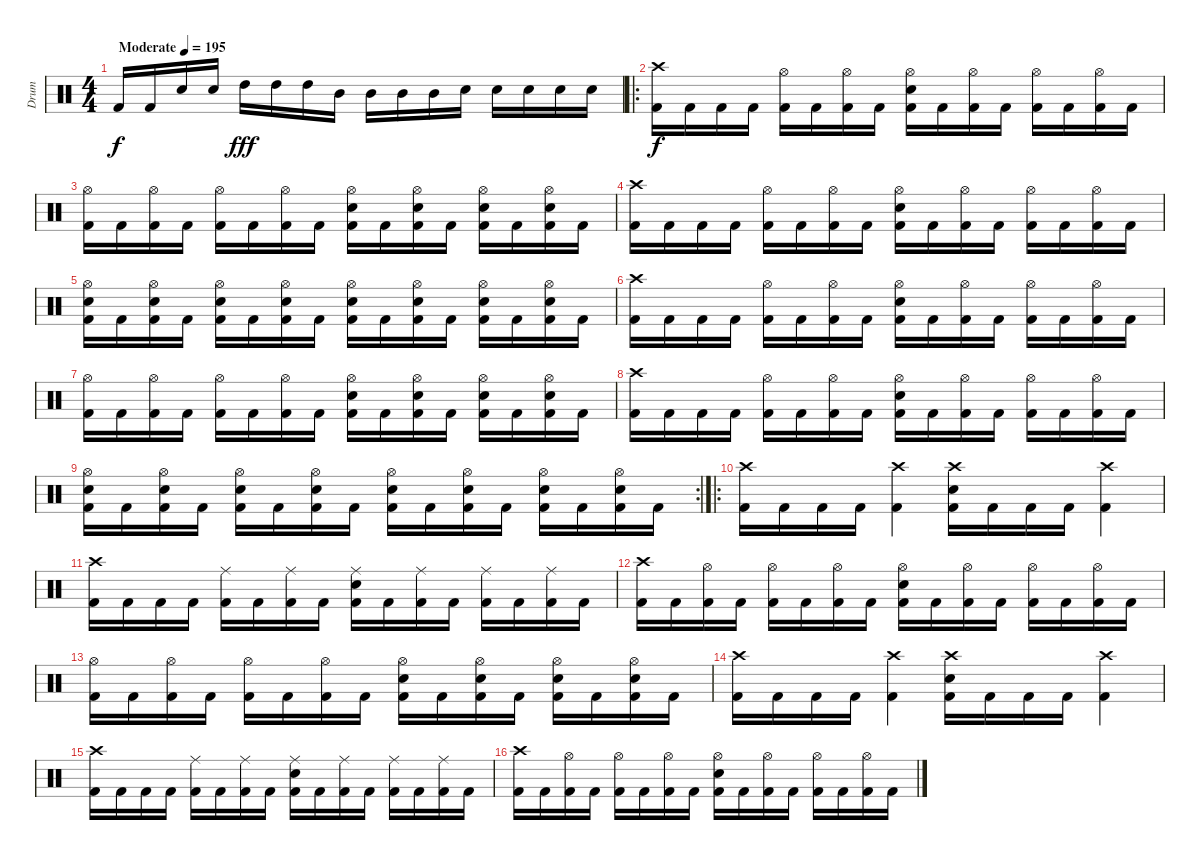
\track ("Drum" "Drum") {instrument percussion}
\staff {score}
\articulation defaults
\ts (4 4)
\tempo (195 "Moderate")
\clef neutral
\ks c "Kick (hit) 2".16{dy f} "Kick (hit) 2".16 "Electric Snare (hit)".16 "Electric Snare (hit)".16 "High Tom (hit)".16{dy fff} "High Tom (hit)".16 "High Tom (hit)".16 "Mid Tom (hit)".16 "Mid Tom (hit)".16 "Mid Tom (hit)".16 "Mid Tom (hit)".16 "Electric Snare (hit)".16 "Electric Snare (hit)".16 "Electric Snare (hit)".16 "Electric Snare (hit)".16 "Electric Snare (hit)".16
|
\ro
("Crash high (hit)" "Kick (hit) 2").16{dy f} "Kick (hit) 2".16 "Kick (hit) 2".16 "Kick (hit) 2".16 ("Hi-Hat (open)" "Kick (hit) 2").16 "Kick (hit) 2".16 ("Hi-Hat (open)" "Kick (hit) 2").16 "Kick (hit) 2".16 ("Hi-Hat (open)" "Electric Snare (hit)" "Kick (hit) 2").16 "Kick (hit) 2".16 ("Hi-Hat (open)" "Kick (hit) 2").16 "Kick (hit) 2".16 ("Hi-Hat (open)" "Kick (hit) 2").16 "Kick (hit) 2".16 ("Hi-Hat (open)" "Kick (hit) 2").16 "Kick (hit) 2".16 |
("Hi-Hat (open)" "Kick (hit) 2").16 "Kick (hit) 2".16 ("Hi-Hat (open)" "Kick (hit) 2").16 "Kick (hit) 2".16 ("Hi-Hat (open)" "Kick (hit) 2").16 "Kick (hit) 2".16 ("Hi-Hat (open)" "Kick (hit) 2").16 "Kick (hit) 2".16 ("Hi-Hat (open)" "Electric Snare (hit)" "Kick (hit) 2").16 "Kick (hit) 2".16 ("Hi-Hat (open)" "Electric Snare (hit)" "Kick (hit) 2").16 "Kick (hit) 2".16 ("Hi-Hat (open)" "Electric Snare (hit)" "Kick (hit) 2").16 "Kick (hit) 2".16 ("Hi-Hat (open)" "Electric Snare (hit)" "Kick (hit) 2").16 "Kick (hit) 2".16 |
("Crash high (hit)" "Kick (hit) 2").16 "Kick (hit) 2".16 "Kick (hit) 2".16 "Kick (hit) 2".16 ("Hi-Hat (open)" "Kick (hit) 2").16 "Kick (hit) 2".16 ("Hi-Hat (open)" "Kick (hit) 2").16 "Kick (hit) 2".16 ("Hi-Hat (open)" "Electric Snare (hit)" "Kick (hit) 2").16 "Kick (hit) 2".16 ("Hi-Hat (open)" "Kick (hit) 2").16 "Kick (hit) 2".16 ("Hi-Hat (open)" "Kick (hit) 2").16 "Kick (hit) 2".16 ("Hi-Hat (open)" "Kick (hit) 2").16 "Kick (hit) 2".16 |
("Hi-Hat (open)" "Electric Snare (hit)" "Kick (hit) 2").16 "Kick (hit) 2".16 ("Hi-Hat (open)" "Electric Snare (hit)" "Kick (hit) 2").16 "Kick (hit) 2".16 ("Hi-Hat (open)" "Electric Snare (hit)" "Kick (hit) 2").16 "Kick (hit) 2".16 ("Hi-Hat (open)" "Electric Snare (hit)" "Kick (hit) 2").16 "Kick (hit) 2".16 ("Hi-Hat (open)" "Electric Snare (hit)" "Kick (hit) 2").16 "Kick (hit) 2".16 ("Hi-Hat (open)" "Electric Snare (hit)" "Kick (hit) 2").16 "Kick (hit) 2".16 ("Hi-Hat (open)" "Electric Snare (hit)" "Kick (hit) 2").16 "Kick (hit) 2".16 ("Hi-Hat (open)" "Electric Snare (hit)" "Kick (hit) 2").16 "Kick (hit) 2".16 |
("Crash high (hit)" "Kick (hit) 2").16 "Kick (hit) 2".16 "Kick (hit) 2".16 "Kick (hit) 2".16 ("Hi-Hat (open)" "Kick (hit) 2").16 "Kick (hit) 2".16 ("Hi-Hat (open)" "Kick (hit) 2").16 "Kick (hit) 2".16 ("Hi-Hat (open)" "Electric Snare (hit)" "Kick (hit) 2").16 "Kick (hit) 2".16 ("Hi-Hat (open)" "Kick (hit) 2").16 "Kick (hit) 2".16 ("Hi-Hat (open)" "Kick (hit) 2").16 "Kick (hit) 2".16 ("Hi-Hat (open)" "Kick (hit) 2").16 "Kick (hit) 2".16 |
("Hi-Hat (open)" "Kick (hit) 2").16 "Kick (hit) 2".16 ("Hi-Hat (open)" "Kick (hit) 2").16 "Kick (hit) 2".16 ("Hi-Hat (open)" "Kick (hit) 2").16 "Kick (hit) 2".16 ("Hi-Hat (open)" "Kick (hit) 2").16 "Kick (hit) 2".16 ("Hi-Hat (open)" "Electric Snare (hit)" "Kick (hit) 2").16 "Kick (hit) 2".16 ("Hi-Hat (open)" "Electric Snare (hit)" "Kick (hit) 2").16 "Kick (hit) 2".16 ("Hi-Hat (open)" "Electric Snare (hit)" "Kick (hit) 2").16 "Kick (hit) 2".16 ("Hi-Hat (open)" "Electric Snare (hit)" "Kick (hit) 2").16 "Kick (hit) 2".16 |
("Crash high (hit)" "Kick (hit) 2").16 "Kick (hit) 2".16 "Kick (hit) 2".16 "Kick (hit) 2".16 ("Hi-Hat (open)" "Kick (hit) 2").16 "Kick (hit) 2".16 ("Hi-Hat (open)" "Kick (hit) 2").16 "Kick (hit) 2".16 ("Hi-Hat (open)" "Electric Snare (hit)" "Kick (hit) 2").16 "Kick (hit) 2".16 ("Hi-Hat (open)" "Kick (hit) 2").16 "Kick (hit) 2".16 ("Hi-Hat (open)" "Kick (hit) 2").16 "Kick (hit) 2".16 ("Hi-Hat (open)" "Kick (hit) 2").16 "Kick (hit) 2".16 |
\rc 2
("Hi-Hat (open)" "Electric Snare (hit)" "Kick (hit) 2").16 "Kick (hit) 2".16 ("Hi-Hat (open)" "Electric Snare (hit)" "Kick (hit) 2").16 "Kick (hit) 2".16 ("Hi-Hat (open)" "Electric Snare (hit)" "Kick (hit) 2").16 "Kick (hit) 2".16 ("Hi-Hat (open)" "Electric Snare (hit)" "Kick (hit) 2").16 "Kick (hit) 2".16 ("Hi-Hat (open)" "Electric Snare (hit)" "Kick (hit) 2").16 "Kick (hit) 2".16 ("Hi-Hat (open)" "Electric Snare (hit)" "Kick (hit) 2").16 "Kick (hit) 2".16 ("Hi-Hat (open)" "Electric Snare (hit)" "Kick (hit) 2").16 "Kick (hit) 2".16 ("Hi-Hat (open)" "Electric Snare (hit)" "Kick (hit) 2").16 "Kick (hit) 2".16 |
\ro
("Crash high (hit)" "Kick (hit) 2").16 "Kick (hit) 2".16 "Kick (hit) 2".16 "Kick (hit) 2".16 ("Crash high (hit)" "Kick (hit) 2").4 ("Crash high (hit)" "Electric Snare (hit)" "Kick (hit) 2").16 "Kick (hit) 2".16 "Kick (hit) 2".16 "Kick (hit) 2".16 ("Crash high (hit)" "Kick (hit) 2").4 |
("Crash high (hit)" "Kick (hit) 2").16 "Kick (hit) 2".16 "Kick (hit) 2".16 "Kick (hit) 2".16 ("Ride (middle)" "Kick (hit) 2").16 "Kick (hit) 2".16 ("Ride (middle)" "Kick (hit) 2").16 "Kick (hit) 2".16 ("Ride (middle)" "Electric Snare (hit)" "Kick (hit) 2").16 "Kick (hit) 2".16 ("Ride (middle)" "Kick (hit) 2").16 "Kick (hit) 2".16 ("Ride (middle)" "Kick (hit) 2").16 "Kick (hit) 2".16 ("Ride (middle)" "Kick (hit) 2").16 "Kick (hit) 2".16 |
("Crash high (hit)" "Kick (hit) 2").16 "Kick (hit) 2".16 ("Hi-Hat (open)" "Kick (hit) 2").16 "Kick (hit) 2".16 ("Hi-Hat (open)" "Kick (hit) 2").16 "Kick (hit) 2".16 ("Hi-Hat (open)" "Kick (hit) 2").16 "Kick (hit) 2".16 ("Hi-Hat (open)" "Electric Snare (hit)" "Kick (hit) 2").16 "Kick (hit) 2".16 ("Hi-Hat (open)" "Kick (hit) 2").16 "Kick (hit) 2".16 ("Hi-Hat (open)" "Kick (hit) 2").16 "Kick (hit) 2".16 ("Hi-Hat (open)" "Kick (hit) 2").16 "Kick (hit) 2".16 |
("Hi-Hat (open)" "Kick (hit) 2").16 "Kick (hit) 2".16 ("Hi-Hat (open)" "Kick (hit) 2").16 "Kick (hit) 2".16 ("Hi-Hat (open)" "Kick (hit) 2").16 "Kick (hit) 2".16 ("Hi-Hat (open)" "Kick (hit) 2").16 "Kick (hit) 2".16 ("Hi-Hat (open)" "Electric Snare (hit)" "Kick (hit) 2").16 "Kick (hit) 2".16 ("Hi-Hat (open)" "Electric Snare (hit)" "Kick (hit) 2").16 "Kick (hit) 2".16 ("Hi-Hat (open)" "Electric Snare (hit)" "Kick (hit) 2").16 "Kick (hit) 2".16 ("Hi-Hat (open)" "Electric Snare (hit)" "Kick (hit) 2").16 "Kick (hit) 2".16 |
("Crash high (hit)" "Kick (hit) 2").16 "Kick (hit) 2".16 "Kick (hit) 2".16 "Kick (hit) 2".16 ("Crash high (hit)" "Kick (hit) 2").4 ("Crash high (hit)" "Electric Snare (hit)" "Kick (hit) 2").16 "Kick (hit) 2".16 "Kick (hit) 2".16 "Kick (hit) 2".16 ("Crash high (hit)" "Kick (hit) 2").4 |
("Crash high (hit)" "Kick (hit) 2").16 "Kick (hit) 2".16 "Kick (hit) 2".16 "Kick (hit) 2".16 ("Ride (middle)" "Kick (hit) 2").16 "Kick (hit) 2".16 ("Ride (middle)" "Kick (hit) 2").16 "Kick (hit) 2".16 ("Ride (middle)" "Electric Snare (hit)" "Kick (hit) 2").16 "Kick (hit) 2".16 ("Ride (middle)" "Kick (hit) 2").16 "Kick (hit) 2".16 ("Ride (middle)" "Kick (hit) 2").16 "Kick (hit) 2".16 ("Ride (middle)" "Kick (hit) 2").16 "Kick (hit) 2".16 |
("Crash high (hit)" "Kick (hit) 2").16 "Kick (hit) 2".16 ("Hi-Hat (open)" "Kick (hit) 2").16 "Kick (hit) 2".16 ("Hi-Hat (open)" "Kick (hit) 2").16 "Kick (hit) 2".16 ("Hi-Hat (open)" "Kick (hit) 2").16 "Kick (hit) 2".16 ("Hi-Hat (open)" "Electric Snare (hit)" "Kick (hit) 2").16 "Kick (hit) 2".16 ("Hi-Hat (open)" "Kick (hit) 2").16 "Kick (hit) 2".16 ("Hi-Hat (open)" "Kick (hit) 2").16 "Kick (hit) 2".16 ("Hi-Hat (open)" "Kick (hit) 2").16 "Kick (hit) 2".16
